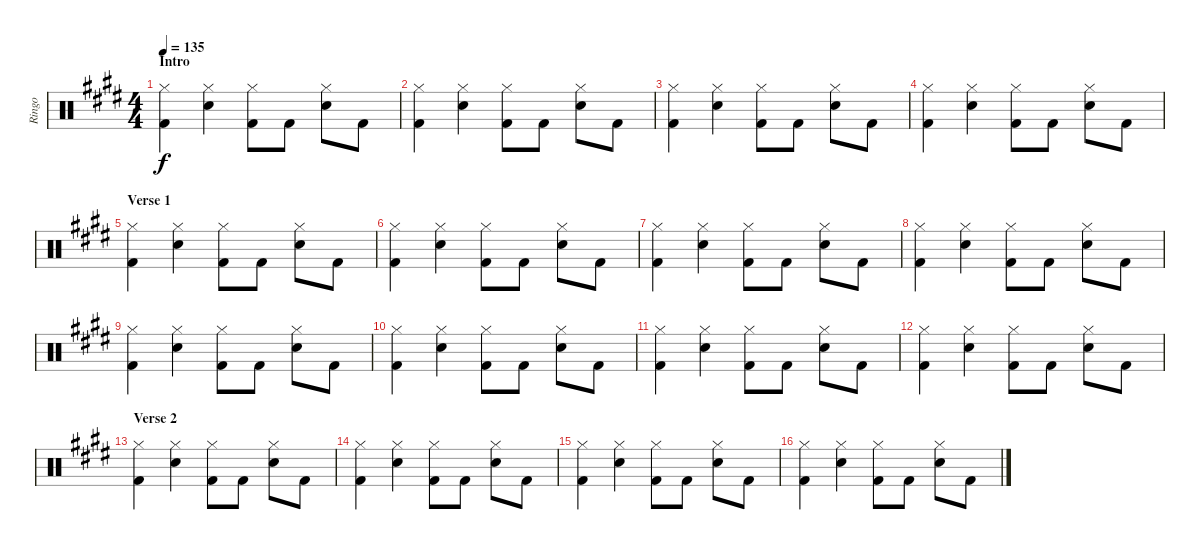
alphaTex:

\track ("Ringo" "Ringo") {instrument percussion}
\staff {score}
\articulation defaults
\ts (4 4)
\section ("" "Intro")
\tempo 135
\clef neutral
\ks e
("Hi-Hat (closed)" "Kick (hit) 2").4{dy f} ("Hi-Hat (closed)" "Snare (hit) 2").4 ("Hi-Hat (closed)" "Kick (hit) 2").8 "Kick (hit) 2".8 ("Hi-Hat (closed)" "Snare (hit) 2").8 "Kick (hit) 2".8 |
("Hi-Hat (closed)" "Kick (hit) 2").4 ("Hi-Hat (closed)" "Snare (hit) 2").4 ("Hi-Hat (closed)" "Kick (hit) 2").8 "Kick (hit) 2".8 ("Hi-Hat (closed)" "Snare (hit) 2").8 "Kick (hit) 2".8 |
("Hi-Hat (closed)" "Kick (hit) 2").4 ("Hi-Hat (closed)" "Snare (hit) 2").4 ("Hi-Hat (closed)" "Kick (hit) 2").8 "Kick (hit) 2".8 ("Hi-Hat (closed)" "Snare (hit) 2").8 "Kick (hit) 2".8 |
("Hi-Hat (closed)" "Kick (hit) 2").4 ("Hi-Hat (closed)" "Snare (hit) 2").4 ("Hi-Hat (closed)" "Kick (hit) 2").8 "Kick (hit) 2".8 ("Hi-Hat (closed)" "Snare (hit) 2").8 "Kick (hit) 2".8 |
\section ("" "Verse 1")
("Hi-Hat (closed)" "Kick (hit) 2").4 ("Hi-Hat (closed)" "Snare (hit) 2").4 ("Hi-Hat (closed)" "Kick (hit) 2").8 "Kick (hit) 2".8 ("Hi-Hat (closed)" "Snare (hit) 2").8 "Kick (hit) 2".8 |
("Hi-Hat (closed)" "Kick (hit) 2").4 ("Hi-Hat (closed)" "Snare (hit) 2").4 ("Hi-Hat (closed)" "Kick (hit) 2").8 "Kick (hit) 2".8 ("Hi-Hat (closed)" "Snare (hit) 2").8 "Kick (hit) 2".8 |
("Hi-Hat (closed)" "Kick (hit) 2").4 ("Hi-Hat (closed)" "Snare (hit) 2").4 ("Hi-Hat (closed)" "Kick (hit) 2").8 "Kick (hit) 2".8 ("Hi-Hat (closed)" "Snare (hit) 2").8 "Kick (hit) 2".8 |
("Hi-Hat (closed)" "Kick (hit) 2").4 ("Hi-Hat (closed)" "Snare (hit) 2").4 ("Hi-Hat (closed)" "Kick (hit) 2").8 "Kick (hit) 2".8 ("Hi-Hat (closed)" "Snare (hit) 2").8 "Kick (hit) 2".8 |
("Hi-Hat (closed)" "Kick (hit) 2").4 ("Hi-Hat (closed)" "Snare (hit) 2").4 ("Hi-Hat (closed)" "Kick (hit) 2").8 "Kick (hit) 2".8 ("Hi-Hat (closed)" "Snare (hit) 2").8 "Kick (hit) 2".8 |
("Hi-Hat (closed)" "Kick (hit) 2").4 ("Hi-Hat (closed)" "Snare (hit) 2").4 ("Hi-Hat (closed)" "Kick (hit) 2").8 "Kick (hit) 2".8 ("Hi-Hat (closed)" "Snare (hit) 2").8 "Kick (hit) 2".8 |
("Hi-Hat (closed)" "Kick (hit) 2").4 ("Hi-Hat (closed)" "Snare (hit) 2").4 ("Hi-Hat (closed)" "Kick (hit) 2").8 "Kick (hit) 2".8 ("Hi-Hat (closed)" "Snare (hit) 2").8 "Kick (hit) 2".8 |
("Hi-Hat (closed)" "Kick (hit) 2").4 ("Hi-Hat (closed)" "Snare (hit) 2").4 ("Hi-Hat (closed)" "Kick (hit) 2").8 "Kick (hit) 2".8 ("Hi-Hat (closed)" "Snare (hit) 2").8 "Kick (hit) 2".8 |
\section ("" "Verse 2")
("Hi-Hat (closed)" "Kick (hit) 2").4 ("Hi-Hat (closed)" "Snare (hit) 2").4 ("Hi-Hat (closed)" "Kick (hit) 2").8 "Kick (hit) 2".8 ("Hi-Hat (closed)" "Snare (hit) 2").8 "Kick (hit) 2".8 |
("Hi-Hat (closed)" "Kick (hit) 2").4 ("Hi-Hat (closed)" "Snare (hit) 2").4 ("Hi-Hat (closed)" "Kick (hit) 2").8 "Kick (hit) 2".8 ("Hi-Hat (closed)" "Snare (hit) 2").8 "Kick (hit) 2".8 |
("Hi-Hat (closed)" "Kick (hit) 2").4 ("Hi-Hat (closed)" "Snare (hit) 2").4 ("Hi-Hat (closed)" "Kick (hit) 2").8 "Kick (hit) 2".8 ("Hi-Hat (closed)" "Snare (hit) 2").8 "Kick (hit) 2".8 |
("Hi-Hat (closed)" "Kick (hit) 2").4 ("Hi-Hat (closed)" "Snare (hit) 2").4 ("Hi-Hat (closed)" "Kick (hit) 2").8 "Kick (hit) 2".8 ("Hi-Hat (closed)" "Snare (hit) 2").8 "Kick (hit) 2".8
